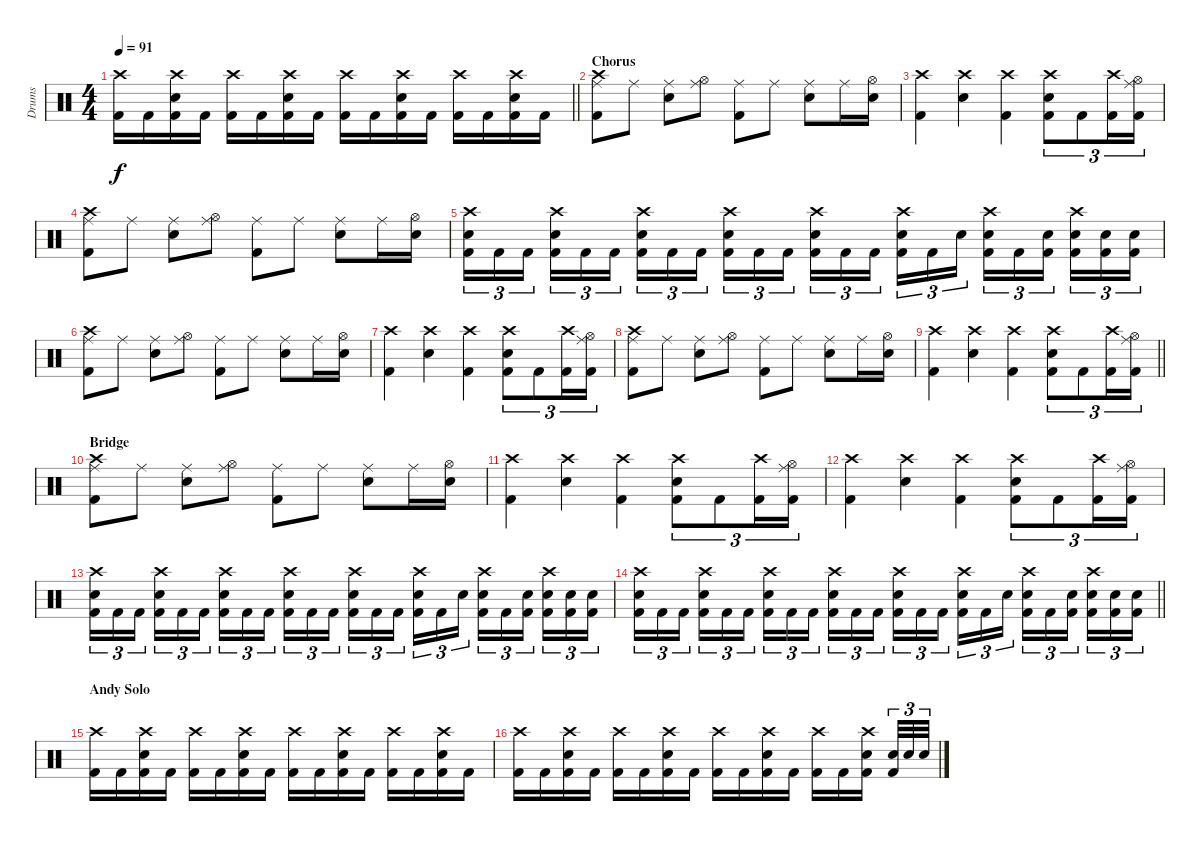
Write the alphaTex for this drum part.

\track ("Drums" "Drums") {instrument percussion}
\staff {score}
\articulation defaults
\ts (4 4)
\tempo 91
\clef neutral
\barLineRight lightlight
\ks c
("Crash high (hit)" "Kick (hit) 2").16{dy f} "Kick (hit) 2".16 ("Snare (hit) 2" "Crash high (hit)" "Kick (hit) 2").16 "Kick (hit) 2".16 ("Crash high (hit)" "Kick (hit) 2").16 "Kick (hit) 2".16 ("Snare (hit) 2" "Crash high (hit)" "Kick (hit) 2").16 "Kick (hit) 2".16 ("Crash high (hit)" "Kick (hit) 2").16 "Kick (hit) 2".16 ("Snare (hit) 2" "Crash high (hit)" "Kick (hit) 2").16 "Kick (hit) 2".16 ("Crash high (hit)" "Kick (hit) 2").16 "Kick (hit) 2".16 ("Snare (hit) 2" "Crash high (hit)" "Kick (hit) 2").16 "Kick (hit) 2".16 |
\section ("" "Chorus")
("Crash high (hit)" "Ride (middle)" "Kick (hit) 2").8 "Ride (middle)".8 ("Ride (middle)" "Snare (hit) 2").8 ("Ride (middle)" "Hi-Hat (open)").8 ("Ride (middle)" "Kick (hit) 2").8 "Ride (middle)".8 ("Ride (middle)" "Snare (hit) 2").8 "Ride (middle)".16 ("Snare (hit) 2" "Hi-Hat (open)").16 |
("Crash high (hit)" "Kick (hit) 2").4 ("Crash high (hit)" "Snare (hit) 2").4 ("Crash high (hit)" "Kick (hit) 2").4 ("Crash high (hit)" "Snare (hit) 2" "Kick (hit) 2").8{tu (3 2)} "Kick (hit) 2".8{tu (3 2)} ("Crash high (hit)" "Kick (hit) 2").16{tu (3 2)} ("Ride (middle)" "Hi-Hat (open)" "Kick (hit) 2").16{tu (3 2)} |
("Crash high (hit)" "Ride (middle)" "Kick (hit) 2").8 "Ride (middle)".8 ("Ride (middle)" "Snare (hit) 2").8 ("Ride (middle)" "Hi-Hat (open)").8 ("Ride (middle)" "Kick (hit) 2").8 "Ride (middle)".8 ("Ride (middle)" "Snare (hit) 2").8 "Ride (middle)".16 ("Snare (hit) 2" "Hi-Hat (open)").16 |
("Crash high (hit)" "Snare (hit) 2" "Kick (hit) 2").16{tu (3 2)} "Kick (hit) 2".16{tu (3 2)} "Kick (hit) 2".16{tu (3 2) beam splitsecondary} ("Crash high (hit)" "Snare (hit) 2" "Kick (hit) 2").16{tu (3 2)} "Kick (hit) 2".16{tu (3 2)} "Kick (hit) 2".16{tu (3 2)} ("Crash high (hit)" "Snare (hit) 2" "Kick (hit) 2").16{tu (3 2)} "Kick (hit) 2".16{tu (3 2)} "Kick (hit) 2".16{tu (3 2) beam splitsecondary} ("Crash high (hit)" "Snare (hit) 2" "Kick (hit) 2").16{tu (3 2)} "Kick (hit) 2".16{tu (3 2)} "Kick (hit) 2".16{tu (3 2)} ("Crash high (hit)" "Snare (hit) 2" "Kick (hit) 2").16{tu (3 2)} "Kick (hit) 2".16{tu (3 2)} "Kick (hit) 2".16{tu (3 2) beam splitsecondary} ("Crash high (hit)" "Snare (hit) 2" "Kick (hit) 2").16{tu (3 2)} "Kick (hit) 2".16{tu (3 2)} "Snare (hit) 2".16{tu (3 2)} ("Crash high (hit)" "Snare (hit) 2" "Kick (hit) 2").16{tu (3 2)} "Kick (hit) 2".16{tu (3 2)} ("Snare (hit) 2" "Kick (hit) 2").16{tu (3 2) beam splitsecondary} ("Crash high (hit)" "Snare (hit) 2" "Kick (hit) 2").16{tu (3 2)} ("Snare (hit) 2" "Kick (hit) 2").16{tu (3 2)} ("Snare (hit) 2" "Kick (hit) 2").16{tu (3 2)} |
("Crash high (hit)" "Ride (middle)" "Kick (hit) 2").8 "Ride (middle)".8 ("Ride (middle)" "Snare (hit) 2").8 ("Ride (middle)" "Hi-Hat (open)").8 ("Ride (middle)" "Kick (hit) 2").8 "Ride (middle)".8 ("Ride (middle)" "Snare (hit) 2").8 "Ride (middle)".16 ("Snare (hit) 2" "Hi-Hat (open)").16 |
("Crash high (hit)" "Kick (hit) 2").4 ("Crash high (hit)" "Snare (hit) 2").4 ("Crash high (hit)" "Kick (hit) 2").4 ("Crash high (hit)" "Snare (hit) 2" "Kick (hit) 2").8{tu (3 2)} "Kick (hit) 2".8{tu (3 2)} ("Crash high (hit)" "Kick (hit) 2").16{tu (3 2)} ("Ride (middle)" "Hi-Hat (open)" "Kick (hit) 2").16{tu (3 2)} |
("Crash high (hit)" "Ride (middle)" "Kick (hit) 2").8 "Ride (middle)".8 ("Ride (middle)" "Snare (hit) 2").8 ("Ride (middle)" "Hi-Hat (open)").8 ("Ride (middle)" "Kick (hit) 2").8 "Ride (middle)".8 ("Ride (middle)" "Snare (hit) 2").8 "Ride (middle)".16 ("Snare (hit) 2" "Hi-Hat (open)").16 |
\barLineRight lightlight
("Crash high (hit)" "Kick (hit) 2").4 ("Crash high (hit)" "Snare (hit) 2").4 ("Crash high (hit)" "Kick (hit) 2").4 ("Crash high (hit)" "Snare (hit) 2" "Kick (hit) 2").8{tu (3 2)} "Kick (hit) 2".8{tu (3 2)} ("Crash high (hit)" "Kick (hit) 2").16{tu (3 2)} ("Ride (middle)" "Hi-Hat (open)" "Kick (hit) 2").16{tu (3 2)} |
\section ("" "Bridge")
("Crash high (hit)" "Ride (middle)" "Kick (hit) 2").8 "Ride (middle)".8 ("Ride (middle)" "Snare (hit) 2").8 ("Ride (middle)" "Hi-Hat (open)").8 ("Ride (middle)" "Kick (hit) 2").8 "Ride (middle)".8 ("Ride (middle)" "Snare (hit) 2").8 "Ride (middle)".16 ("Snare (hit) 2" "Hi-Hat (open)").16 |
("Crash high (hit)" "Kick (hit) 2").4 ("Crash high (hit)" "Snare (hit) 2").4 ("Crash high (hit)" "Kick (hit) 2").4 ("Crash high (hit)" "Snare (hit) 2" "Kick (hit) 2").8{tu (3 2)} "Kick (hit) 2".8{tu (3 2)} ("Crash high (hit)" "Kick (hit) 2").16{tu (3 2)} ("Ride (middle)" "Hi-Hat (open)" "Kick (hit) 2").16{tu (3 2)} |
("Crash high (hit)" "Kick (hit) 2").4 ("Crash high (hit)" "Snare (hit) 2").4 ("Crash high (hit)" "Kick (hit) 2").4 ("Crash high (hit)" "Snare (hit) 2" "Kick (hit) 2").8{tu (3 2)} "Kick (hit) 2".8{tu (3 2)} ("Crash high (hit)" "Kick (hit) 2").16{tu (3 2)} ("Ride (middle)" "Hi-Hat (open)" "Kick (hit) 2").16{tu (3 2)} |
("Crash high (hit)" "Snare (hit) 2" "Kick (hit) 2").16{tu (3 2)} "Kick (hit) 2".16{tu (3 2)} "Kick (hit) 2".16{tu (3 2) beam splitsecondary} ("Crash high (hit)" "Snare (hit) 2" "Kick (hit) 2").16{tu (3 2)} "Kick (hit) 2".16{tu (3 2)} "Kick (hit) 2".16{tu (3 2)} ("Crash high (hit)" "Snare (hit) 2" "Kick (hit) 2").16{tu (3 2)} "Kick (hit) 2".16{tu (3 2)} "Kick (hit) 2".16{tu (3 2) beam splitsecondary} ("Crash high (hit)" "Snare (hit) 2" "Kick (hit) 2").16{tu (3 2)} "Kick (hit) 2".16{tu (3 2)} "Kick (hit) 2".16{tu (3 2)} ("Crash high (hit)" "Snare (hit) 2" "Kick (hit) 2").16{tu (3 2)} "Kick (hit) 2".16{tu (3 2)} "Kick (hit) 2".16{tu (3 2) beam splitsecondary} ("Crash high (hit)" "Snare (hit) 2" "Kick (hit) 2").16{tu (3 2)} "Kick (hit) 2".16{tu (3 2)} "Snare (hit) 2".16{tu (3 2)} ("Crash high (hit)" "Snare (hit) 2" "Kick (hit) 2").16{tu (3 2)} "Kick (hit) 2".16{tu (3 2)} ("Snare (hit) 2" "Kick (hit) 2").16{tu (3 2) beam splitsecondary} ("Crash high (hit)" "Snare (hit) 2" "Kick (hit) 2").16{tu (3 2)} ("Snare (hit) 2" "Kick (hit) 2").16{tu (3 2)} ("Snare (hit) 2" "Kick (hit) 2").16{tu (3 2)} |
\barLineRight lightlight
("Crash high (hit)" "Snare (hit) 2" "Kick (hit) 2").16{tu (3 2)} "Kick (hit) 2".16{tu (3 2)} "Kick (hit) 2".16{tu (3 2) beam splitsecondary} ("Crash high (hit)" "Snare (hit) 2" "Kick (hit) 2").16{tu (3 2)} "Kick (hit) 2".16{tu (3 2)} "Kick (hit) 2".16{tu (3 2)} ("Crash high (hit)" "Snare (hit) 2" "Kick (hit) 2").16{tu (3 2)} "Kick (hit) 2".16{tu (3 2)} "Kick (hit) 2".16{tu (3 2) beam splitsecondary} ("Crash high (hit)" "Snare (hit) 2" "Kick (hit) 2").16{tu (3 2)} "Kick (hit) 2".16{tu (3 2)} "Kick (hit) 2".16{tu (3 2)} ("Crash high (hit)" "Snare (hit) 2" "Kick (hit) 2").16{tu (3 2)} "Kick (hit) 2".16{tu (3 2)} "Kick (hit) 2".16{tu (3 2) beam splitsecondary} ("Crash high (hit)" "Snare (hit) 2" "Kick (hit) 2").16{tu (3 2)} "Kick (hit) 2".16{tu (3 2)} "Snare (hit) 2".16{tu (3 2)} ("Crash high (hit)" "Snare (hit) 2" "Kick (hit) 2").16{tu (3 2)} "Kick (hit) 2".16{tu (3 2)} ("Snare (hit) 2" "Kick (hit) 2").16{tu (3 2) beam splitsecondary} ("Crash high (hit)" "Snare (hit) 2" "Kick (hit) 2").16{tu (3 2)} ("Snare (hit) 2" "Kick (hit) 2").16{tu (3 2)} ("Snare (hit) 2" "Kick (hit) 2").16{tu (3 2)} |
\section ("" "Andy Solo")
("Crash high (hit)" "Kick (hit) 2").16 "Kick (hit) 2".16 ("Snare (hit) 2" "Crash high (hit)" "Kick (hit) 2").16 "Kick (hit) 2".16 ("Crash high (hit)" "Kick (hit) 2").16 "Kick (hit) 2".16 ("Snare (hit) 2" "Crash high (hit)" "Kick (hit) 2").16 "Kick (hit) 2".16 ("Crash high (hit)" "Kick (hit) 2").16 "Kick (hit) 2".16 ("Snare (hit) 2" "Crash high (hit)" "Kick (hit) 2").16 "Kick (hit) 2".16 ("Crash high (hit)" "Kick (hit) 2").16 "Kick (hit) 2".16 ("Snare (hit) 2" "Crash high (hit)" "Kick (hit) 2").16 "Kick (hit) 2".16 |
("Crash high (hit)" "Kick (hit) 2").16 "Kick (hit) 2".16 ("Snare (hit) 2" "Crash high (hit)" "Kick (hit) 2").16 "Kick (hit) 2".16 ("Crash high (hit)" "Kick (hit) 2").16 "Kick (hit) 2".16 ("Snare (hit) 2" "Crash high (hit)" "Kick (hit) 2").16 "Kick (hit) 2".16 ("Crash high (hit)" "Kick (hit) 2").16 "Kick (hit) 2".16 ("Snare (hit) 2" "Crash high (hit)" "Kick (hit) 2").16 "Kick (hit) 2".16 ("Crash high (hit)" "Kick (hit) 2").16 "Kick (hit) 2".16 ("Snare (hit) 2" "Crash high (hit)" "Kick (hit) 2").16{beam splitsecondary} ("Snare (hit) 2" "Kick (hit) 2").32{tu (3 2)} "Snare (hit) 2".32{tu (3 2)} "Snare (hit) 2".32{tu (3 2)}
